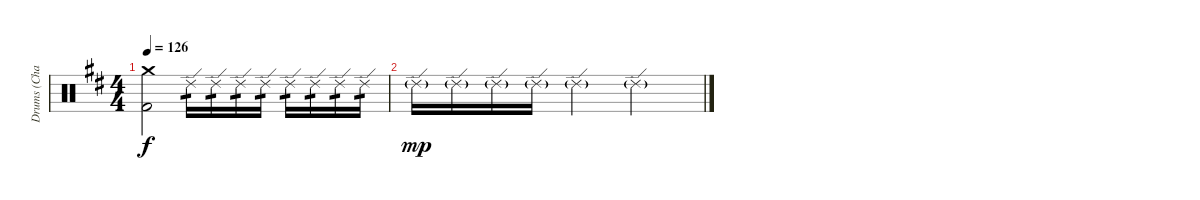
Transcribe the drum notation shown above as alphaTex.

\track ("Drums (Charlie)" "Drums (Cha") {instrument percussion}
\staff {score}
\articulation defaults
\ts (4 4)
\tempo 126
\clef neutral
\ks d
("Crash medium (hit)" "Kick (hit) 2").2{dy f} "Ride (edge) 2".16{tp 1} "Ride (edge) 2".16{tp 1} "Ride (edge) 2".16{tp 1} "Ride (edge) 2".16{tp 1} "Ride (edge) 2".16{tp 1} "Ride (edge) 2".16{tp 1} "Ride (edge) 2".16{tp 1} "Ride (edge) 2".16{tp 1} |
"Ride (edge) 2"{g}.16{dy mp} "Ride (edge) 2"{g}.16 "Ride (edge) 2"{g}.16 "Ride (edge) 2"{g}.16 "Ride (edge) 2"{g}.4 "Ride (edge) 2"{g}.2
